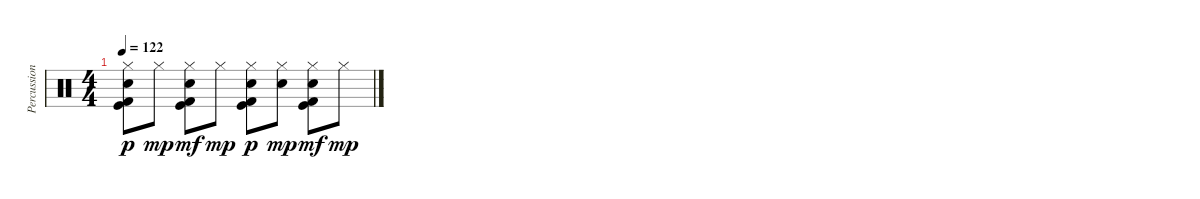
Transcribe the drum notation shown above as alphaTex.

\track ("Percussion" "Percussion") {instrument percussion}
\staff {score}
\articulation defaults
\ts (4 4)
\tempo 122
\clef neutral
\ks c
("Hi-Hat (closed)" "Hand Clap (hit)" "Kick (hit)" "Kick (hit) 2").8{dy p} "Hi-Hat (closed)".8{dy mp} ("Hi-Hat (closed)" "Hand Clap (hit)" "Kick (hit)" "Kick (hit) 2").8{dy mf} "Hi-Hat (closed)".8{dy mp} ("Hi-Hat (closed)" "Hand Clap (hit)" "Kick (hit)" "Kick (hit) 2").8{dy p} ("Hi-Hat (closed)" "Hand Clap (hit)").8{dy mp} ("Hi-Hat (closed)" "Hand Clap (hit)" "Kick (hit)" "Kick (hit) 2").8{dy mf} "Hi-Hat (closed)".8{dy mp}
